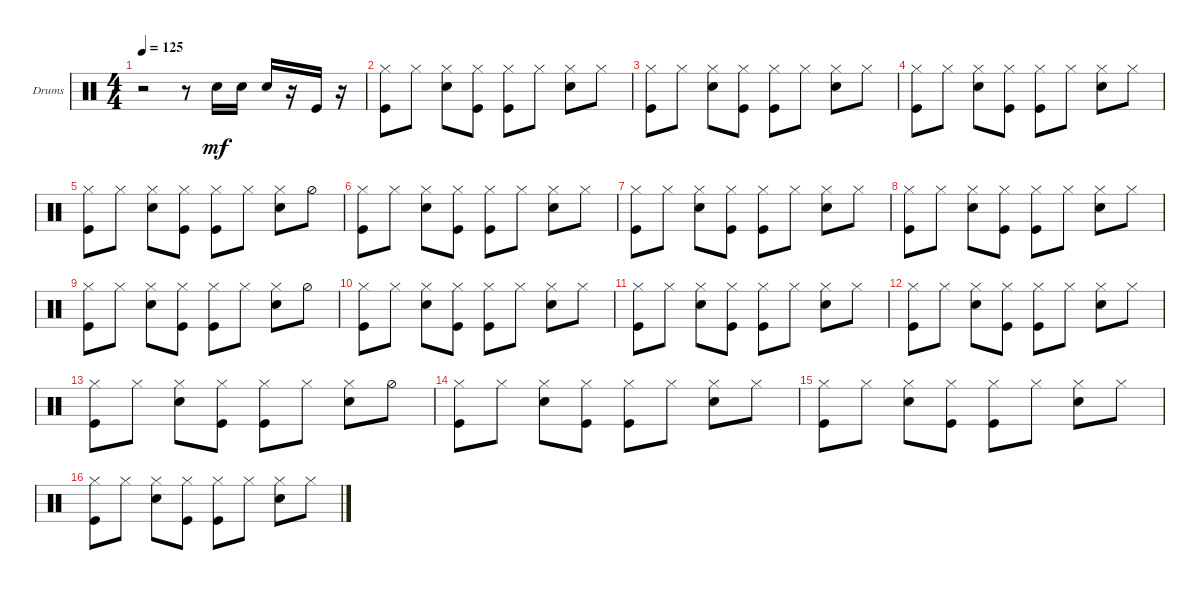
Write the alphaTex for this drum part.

\defaultSystemsLayout 4
\bracketExtendMode groupsimilarinstruments
\firstSystemTrackNameOrientation horizontal
\otherSystemsTrackNameOrientation horizontal
\track ("Drumkit" "Drums") {instrument percussion}
\staff {score}
\articulation defaults
\ts (4 4)
\tempo 125
\clef neutral
\ks c
r.2{dy mf} r.8 "Snare (hit) 2".16 "Snare (hit) 2".16 "Snare (hit) 2".16 r.16 "Kick (hit)".16 r.16 |
("Hi-Hat (closed)" "Kick (hit)").8 "Hi-Hat (closed)".8 ("Hi-Hat (closed)" "Snare (hit) 2").8 ("Hi-Hat (closed)" "Kick (hit)").8 ("Hi-Hat (closed)" "Kick (hit)").8 "Hi-Hat (closed)".8 ("Hi-Hat (closed)" "Snare (hit) 2").8 "Hi-Hat (closed)".8 |
("Hi-Hat (closed)" "Kick (hit)").8 "Hi-Hat (closed)".8 ("Hi-Hat (closed)" "Snare (hit) 2").8 ("Hi-Hat (closed)" "Kick (hit)").8 ("Hi-Hat (closed)" "Kick (hit)").8 "Hi-Hat (closed)".8 ("Hi-Hat (closed)" "Snare (hit) 2").8 "Hi-Hat (closed)".8 |
("Hi-Hat (closed)" "Kick (hit)").8 "Hi-Hat (closed)".8 ("Hi-Hat (closed)" "Snare (hit) 2").8 ("Hi-Hat (closed)" "Kick (hit)").8 ("Hi-Hat (closed)" "Kick (hit)").8 "Hi-Hat (closed)".8 ("Hi-Hat (closed)" "Snare (hit) 2").8 "Hi-Hat (closed)".8 |
("Hi-Hat (closed)" "Kick (hit)").8 "Hi-Hat (closed)".8 ("Hi-Hat (closed)" "Snare (hit) 2").8 ("Hi-Hat (closed)" "Kick (hit)").8 ("Hi-Hat (closed)" "Kick (hit)").8 "Hi-Hat (closed)".8 ("Hi-Hat (closed)" "Snare (hit) 2").8 "Hi-Hat (half)".8 |
("Hi-Hat (closed)" "Kick (hit)").8 "Hi-Hat (closed)".8 ("Hi-Hat (closed)" "Snare (hit) 2").8 ("Hi-Hat (closed)" "Kick (hit)").8 ("Hi-Hat (closed)" "Kick (hit)").8 "Hi-Hat (closed)".8 ("Hi-Hat (closed)" "Snare (hit) 2").8 "Hi-Hat (closed)".8 |
("Hi-Hat (closed)" "Kick (hit)").8 "Hi-Hat (closed)".8 ("Hi-Hat (closed)" "Snare (hit) 2").8 ("Hi-Hat (closed)" "Kick (hit)").8 ("Hi-Hat (closed)" "Kick (hit)").8 "Hi-Hat (closed)".8 ("Hi-Hat (closed)" "Snare (hit) 2").8 "Hi-Hat (closed)".8 |
("Hi-Hat (closed)" "Kick (hit)").8 "Hi-Hat (closed)".8 ("Hi-Hat (closed)" "Snare (hit) 2").8 ("Hi-Hat (closed)" "Kick (hit)").8 ("Hi-Hat (closed)" "Kick (hit)").8 "Hi-Hat (closed)".8 ("Hi-Hat (closed)" "Snare (hit) 2").8 "Hi-Hat (closed)".8 |
("Hi-Hat (closed)" "Kick (hit)").8 "Hi-Hat (closed)".8 ("Hi-Hat (closed)" "Snare (hit) 2").8 ("Hi-Hat (closed)" "Kick (hit)").8 ("Hi-Hat (closed)" "Kick (hit)").8 "Hi-Hat (closed)".8 ("Hi-Hat (closed)" "Snare (hit) 2").8 "Hi-Hat (half)".8 |
("Hi-Hat (closed)" "Kick (hit)").8 "Hi-Hat (closed)".8 ("Hi-Hat (closed)" "Snare (hit) 2").8 ("Hi-Hat (closed)" "Kick (hit)").8 ("Hi-Hat (closed)" "Kick (hit)").8 "Hi-Hat (closed)".8 ("Hi-Hat (closed)" "Snare (hit) 2").8 "Hi-Hat (closed)".8 |
("Hi-Hat (closed)" "Kick (hit)").8 "Hi-Hat (closed)".8 ("Hi-Hat (closed)" "Snare (hit) 2").8 ("Hi-Hat (closed)" "Kick (hit)").8 ("Hi-Hat (closed)" "Kick (hit)").8 "Hi-Hat (closed)".8 ("Hi-Hat (closed)" "Snare (hit) 2").8 "Hi-Hat (closed)".8 |
("Hi-Hat (closed)" "Kick (hit)").8 "Hi-Hat (closed)".8 ("Hi-Hat (closed)" "Snare (hit) 2").8 ("Hi-Hat (closed)" "Kick (hit)").8 ("Hi-Hat (closed)" "Kick (hit)").8 "Hi-Hat (closed)".8 ("Hi-Hat (closed)" "Snare (hit) 2").8 "Hi-Hat (closed)".8 |
("Hi-Hat (closed)" "Kick (hit)").8 "Hi-Hat (closed)".8 ("Hi-Hat (closed)" "Snare (hit) 2").8 ("Hi-Hat (closed)" "Kick (hit)").8 ("Hi-Hat (closed)" "Kick (hit)").8 "Hi-Hat (closed)".8 ("Hi-Hat (closed)" "Snare (hit) 2").8 "Hi-Hat (half)".8 |
("Hi-Hat (closed)" "Kick (hit)").8 "Hi-Hat (closed)".8 ("Hi-Hat (closed)" "Snare (hit) 2").8 ("Hi-Hat (closed)" "Kick (hit)").8 ("Hi-Hat (closed)" "Kick (hit)").8 "Hi-Hat (closed)".8 ("Hi-Hat (closed)" "Snare (hit) 2").8 "Hi-Hat (closed)".8 |
("Hi-Hat (closed)" "Kick (hit)").8 "Hi-Hat (closed)".8 ("Hi-Hat (closed)" "Snare (hit) 2").8 ("Hi-Hat (closed)" "Kick (hit)").8 ("Hi-Hat (closed)" "Kick (hit)").8 "Hi-Hat (closed)".8 ("Hi-Hat (closed)" "Snare (hit) 2").8 "Hi-Hat (closed)".8 |
("Hi-Hat (closed)" "Kick (hit)").8 "Hi-Hat (closed)".8 ("Hi-Hat (closed)" "Snare (hit) 2").8 ("Hi-Hat (closed)" "Kick (hit)").8 ("Hi-Hat (closed)" "Kick (hit)").8 "Hi-Hat (closed)".8 ("Hi-Hat (closed)" "Snare (hit) 2").8 "Hi-Hat (closed)".8
